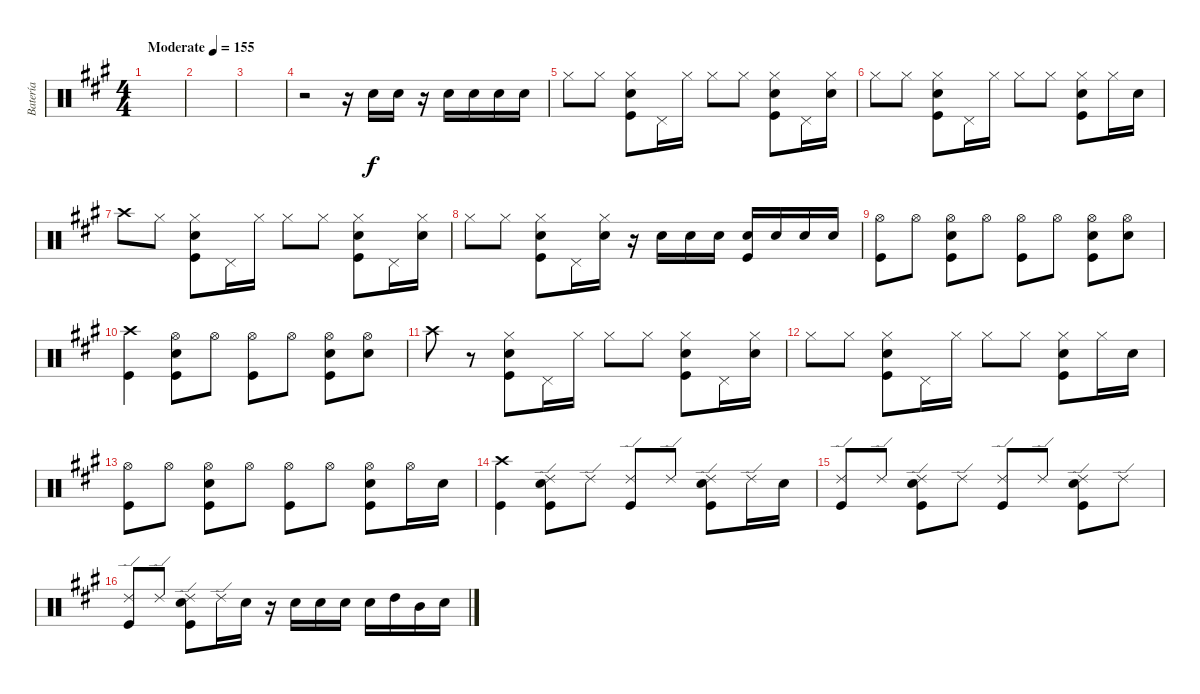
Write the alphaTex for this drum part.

\track ("Batería" "Batería") {instrument percussion}
\staff {score}
\articulation defaults
\ts (4 4)
\tempo (155 "Moderate")
\clef neutral
\ks f#minor
|
|
|
r.2 r.16 "Snare (hit) 2".16 "Snare (hit) 2".16 r.16 "Snare (hit) 2".16 "Snare (hit) 2".16 "Snare (hit) 2".16 "Snare (hit) 2".16 |
"Hi-Hat (closed)".8 "Hi-Hat (closed)".8 ("Snare (hit) 2" "Hi-Hat (closed)" "Kick (hit)").8 "Pedal Hi-Hat (hit)".16 "Hi-Hat (closed)".16 "Hi-Hat (closed)".8 "Hi-Hat (closed)".8 ("Snare (hit) 2" "Hi-Hat (closed)" "Kick (hit)").8 "Pedal Hi-Hat (hit)".16 ("Snare (hit) 2" "Hi-Hat (closed)").16 |
"Hi-Hat (closed)".8 "Hi-Hat (closed)".8 ("Snare (hit) 2" "Hi-Hat (closed)" "Kick (hit)").8 "Pedal Hi-Hat (hit)".16 "Hi-Hat (closed)".16 "Hi-Hat (closed)".8 "Hi-Hat (closed)".8 ("Snare (hit) 2" "Hi-Hat (closed)" "Kick (hit)").8 "Hi-Hat (closed)".16 "Snare (hit) 2".16 |
"Crash high (hit)".8 "Hi-Hat (closed)".8 ("Snare (hit) 2" "Hi-Hat (closed)" "Kick (hit)").8 "Pedal Hi-Hat (hit)".16 "Hi-Hat (closed)".16 "Hi-Hat (closed)".8 "Hi-Hat (closed)".8 ("Snare (hit) 2" "Hi-Hat (closed)" "Kick (hit)").8 "Pedal Hi-Hat (hit)".16 ("Snare (hit) 2" "Hi-Hat (closed)").16 |
"Hi-Hat (closed)".8 "Hi-Hat (closed)".8 ("Snare (hit) 2" "Hi-Hat (closed)" "Kick (hit)").8 "Pedal Hi-Hat (hit)".16 ("Snare (hit) 2" "Hi-Hat (closed)").16 r.16 "Snare (hit) 2".16 "Snare (hit) 2".16 "Snare (hit) 2".16 ("Snare (hit) 2" "Kick (hit)").16 "Snare (hit) 2".16 "Snare (hit) 2".16 "Snare (hit) 2".16 |
("Hi-Hat (open)" "Kick (hit)").8 "Hi-Hat (open)".8 ("Snare (hit) 2" "Hi-Hat (open)" "Kick (hit)").8 "Hi-Hat (open)".8 ("Hi-Hat (open)" "Kick (hit)").8 "Hi-Hat (open)".8 ("Snare (hit) 2" "Hi-Hat (open)" "Kick (hit)").8 ("Snare (hit) 2" "Hi-Hat (open)").8 |
("Crash high (hit)" "Kick (hit)").4 ("Snare (hit) 2" "Hi-Hat (open)" "Kick (hit)").8 "Hi-Hat (open)".8 ("Hi-Hat (open)" "Kick (hit)").8 "Hi-Hat (open)".8 ("Snare (hit) 2" "Hi-Hat (open)" "Kick (hit)").8 ("Snare (hit) 2" "Hi-Hat (open)").8 |
"Crash high (hit)".8 r.8 ("Snare (hit) 2" "Hi-Hat (closed)" "Kick (hit)").8 "Pedal Hi-Hat (hit)".16 "Hi-Hat (closed)".16 "Hi-Hat (closed)".8 "Hi-Hat (closed)".8 ("Snare (hit) 2" "Hi-Hat (closed)" "Kick (hit)").8 "Pedal Hi-Hat (hit)".16 ("Snare (hit) 2" "Hi-Hat (closed)").16 |
"Hi-Hat (closed)".8 "Hi-Hat (closed)".8 ("Snare (hit) 2" "Hi-Hat (closed)" "Kick (hit)").8 "Pedal Hi-Hat (hit)".16 "Hi-Hat (closed)".16 "Hi-Hat (closed)".8 "Hi-Hat (closed)".8 ("Snare (hit) 2" "Hi-Hat (closed)" "Kick (hit)").8 "Hi-Hat (closed)".16 "Snare (hit) 2".16 |
("Hi-Hat (open)" "Kick (hit)").8 "Hi-Hat (open)".8 ("Snare (hit) 2" "Hi-Hat (open)" "Kick (hit)").8 "Hi-Hat (open)".8 ("Hi-Hat (open)" "Kick (hit)").8 "Hi-Hat (open)".8 ("Snare (hit) 2" "Hi-Hat (open)" "Kick (hit)").8 "Hi-Hat (open)".16 "Snare (hit) 2".16 |
("Crash high (hit)" "Kick (hit)").4 ("Snare (hit) 2" "Ride (edge) 2" "Kick (hit)").8 "Ride (edge) 2".8 ("Ride (edge) 2" "Kick (hit)").8 "Ride (edge) 2".8 ("Snare (hit) 2" "Ride (edge) 2" "Kick (hit)").8 "Ride (edge) 2".16 "Snare (hit) 2".16 |
("Ride (edge) 2" "Kick (hit)").8 "Ride (edge) 2".8 ("Snare (hit) 2" "Ride (edge) 2" "Kick (hit)").8 "Ride (edge) 2".8 ("Ride (edge) 2" "Kick (hit)").8 "Ride (edge) 2".8 ("Snare (hit) 2" "Ride (edge) 2" "Kick (hit)").8 "Ride (edge) 2".8 |
("Ride (edge) 2" "Kick (hit)").8 "Ride (edge) 2".8 ("Snare (hit) 2" "Ride (edge) 2" "Kick (hit)").8 "Ride (edge) 2".16 "Snare (hit) 2".16 r.16 "Snare (hit) 2".16 "Snare (hit) 2".16 "Snare (hit) 2".16 "Snare (hit) 2".16 "High Tom (hit)".16 "Mid Tom (hit)".16 "Snare (hit) 2".16
